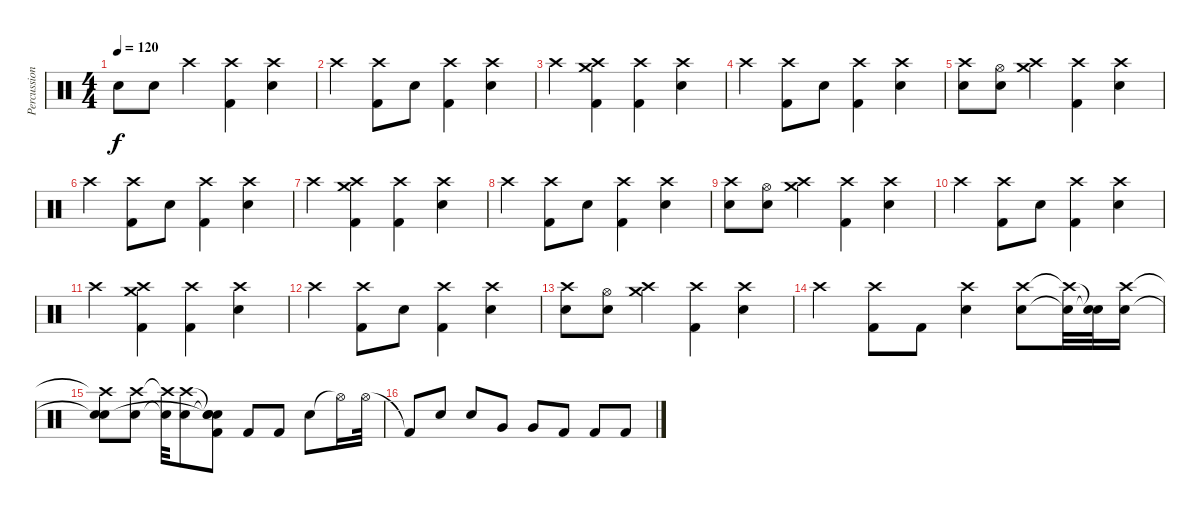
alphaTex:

\track ("Percussioni" "Percussion") {instrument percussion}
\staff {score}
\articulation defaults
\ts (4 4)
\tempo 120
\clef neutral
\ks c "Snare (hit) 2".8{dy f} "Snare (hit) 2".8 "Crash high (hit)".4
("Crash high (hit)" "Kick (hit) 2").4 ("Crash high (hit)" "Snare (hit) 2").4 |
"Crash high (hit)".4 ("Crash high (hit)" "Kick (hit) 2").8 "Snare (hit) 2".8 ("Crash high (hit)" "Kick (hit) 2").4 ("Crash high (hit)" "Snare (hit) 2").4 |
"Crash high (hit)".4 ("Crash high (hit)" "Kick (hit) 2" "Crash medium (hit)").4 ("Crash high (hit)" "Kick (hit) 2").4 ("Crash high (hit)" "Snare (hit) 2").4 |
"Crash high (hit)".4 ("Crash high (hit)" "Kick (hit) 2").8 "Snare (hit) 2".8 ("Crash high (hit)" "Kick (hit) 2").4 ("Crash high (hit)" "Snare (hit) 2").4 |
("Crash high (hit)" "Snare (hit) 2").8 ("Snare (hit) 2" "Hi-Hat (open)").8 ("Crash high (hit)" "Crash medium (hit)").4 ("Crash high (hit)" "Kick (hit) 2").4 ("Crash high (hit)" "Snare (hit) 2").4 |
"Crash high (hit)".4 ("Crash high (hit)" "Kick (hit) 2").8 "Snare (hit) 2".8 ("Crash high (hit)" "Kick (hit) 2").4 ("Crash high (hit)" "Snare (hit) 2").4 |
"Crash high (hit)".4 ("Crash high (hit)" "Kick (hit) 2" "Crash medium (hit)").4 ("Crash high (hit)" "Kick (hit) 2").4 ("Crash high (hit)" "Snare (hit) 2").4 |
"Crash high (hit)".4 ("Crash high (hit)" "Kick (hit) 2").8 "Snare (hit) 2".8 ("Crash high (hit)" "Kick (hit) 2").4 ("Crash high (hit)" "Snare (hit) 2").4 |
("Crash high (hit)" "Snare (hit) 2").8 ("Snare (hit) 2" "Hi-Hat (open)").8 ("Crash high (hit)" "Crash medium (hit)").4 ("Crash high (hit)" "Kick (hit) 2").4 ("Crash high (hit)" "Snare (hit) 2").4 |
"Crash high (hit)".4 ("Crash high (hit)" "Kick (hit) 2").8 "Snare (hit) 2".8 ("Crash high (hit)" "Kick (hit) 2").4 ("Crash high (hit)" "Snare (hit) 2").4 |
"Crash high (hit)".4 ("Crash high (hit)" "Kick (hit) 2" "Crash medium (hit)").4 ("Crash high (hit)" "Kick (hit) 2").4 ("Crash high (hit)" "Snare (hit) 2").4 |
"Crash high (hit)".4 ("Crash high (hit)" "Kick (hit) 2").8 "Snare (hit) 2".8 ("Crash high (hit)" "Kick (hit) 2").4 ("Crash high (hit)" "Snare (hit) 2").4 |
("Crash high (hit)" "Snare (hit) 2").8 ("Snare (hit) 2" "Hi-Hat (open)").8 ("Crash high (hit)" "Crash medium (hit)").4 ("Crash high (hit)" "Kick (hit) 2").4 ("Crash high (hit)" "Snare (hit) 2").4 |
"Crash high (hit)".4 ("Crash high (hit)" "Kick (hit) 2").8 "Kick (hit) 2".8 ("Crash high (hit)" "Snare (hit) 2").4 ("Crash high (hit)" "Snare (hit) 2").8 ("Crash high (hit)"{t} "Snare (hit) 2"{t}).32 ("Snare (hit)"{t} "Snare (hit)"{t}).32 ("Crash high (hit)" "Snare (hit) 2").16 |
("Crash high (hit)"{t} "Snare (hit) 2"{t} "Snare (hit)").8 ("Crash high (hit)" "Snare (hit) 2").8 ("Crash high (hit)"{t} "Snare (hit) 2"{t}).32 ("Crash high (hit)" "Snare (hit) 2").8 ("Snare (hit)"{t} "Snare (hit)"{t} "Snare (hit)"{t} "Kick (hit) 2").8 "Kick (hit) 2".8 "Kick (hit) 2".8 "Snare (hit) 2".8 "Hi-Hat (open)"{t}.16 "Hi-Hat (open)".32 |
"Kick (hit) 2"{t}.8 "Snare (hit) 2".8 "Snare (hit) 2".8 "Very Low Tom (hit)".8 "Very Low Tom (hit)".8 "Kick (hit) 2".8 "Kick (hit) 2".8 "Kick (hit) 2".8
